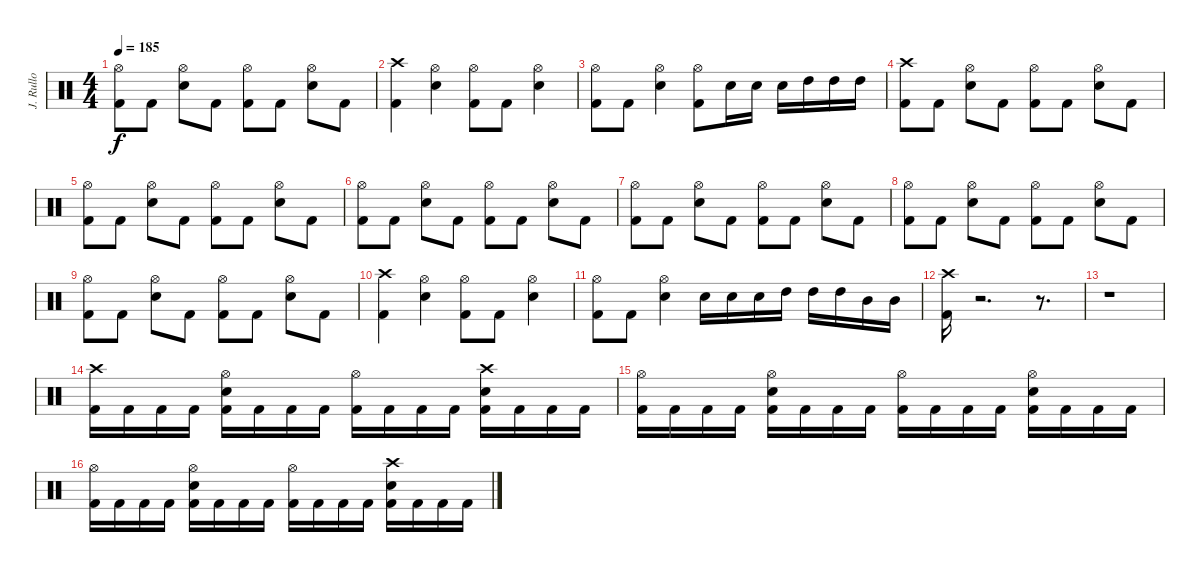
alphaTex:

\track ("J. Rullo" "J. Rullo") {instrument percussion}
\staff {score}
\articulation defaults
\ts (4 4)
\tempo 185
\clef neutral
\ks c
("Hi-Hat (open)" "Kick (hit) 2").8{dy f} "Kick (hit) 2".8 ("Hi-Hat (open)" "Snare (hit) 2").8 "Kick (hit) 2".8 ("Hi-Hat (open)" "Kick (hit) 2").8 "Kick (hit) 2".8 ("Hi-Hat (open)" "Snare (hit) 2").8 "Kick (hit) 2".8 |
("Crash high (hit)" "Kick (hit) 2").4 ("Hi-Hat (open)" "Snare (hit) 2").4 ("Hi-Hat (open)" "Kick (hit) 2").8 "Kick (hit) 2".8 ("Hi-Hat (open)" "Snare (hit) 2").4 |
("Hi-Hat (open)" "Kick (hit) 2").8 "Kick (hit) 2".8 ("Hi-Hat (open)" "Snare (hit) 2").4 ("Hi-Hat (open)" "Kick (hit) 2").8 "Snare (hit) 2".16 "Snare (hit) 2".16 "Snare (hit) 2".16 "High Tom (hit)".16 "High Tom (hit)".16 "High Tom (hit)".16 |
("Crash high (hit)" "Kick (hit) 2").8 "Kick (hit) 2".8 ("Hi-Hat (open)" "Snare (hit) 2").8 "Kick (hit) 2".8 ("Hi-Hat (open)" "Kick (hit) 2").8 "Kick (hit) 2".8 ("Hi-Hat (open)" "Snare (hit) 2").8 "Kick (hit) 2".8 |
("Hi-Hat (open)" "Kick (hit) 2").8 "Kick (hit) 2".8 ("Hi-Hat (open)" "Snare (hit) 2").8 "Kick (hit) 2".8 ("Hi-Hat (open)" "Kick (hit) 2").8 "Kick (hit) 2".8 ("Hi-Hat (open)" "Snare (hit) 2").8 "Kick (hit) 2".8 |
("Hi-Hat (open)" "Kick (hit) 2").8 "Kick (hit) 2".8 ("Hi-Hat (open)" "Snare (hit) 2").8 "Kick (hit) 2".8 ("Hi-Hat (open)" "Kick (hit) 2").8 "Kick (hit) 2".8 ("Hi-Hat (open)" "Snare (hit) 2").8 "Kick (hit) 2".8 |
("Hi-Hat (open)" "Kick (hit) 2").8 "Kick (hit) 2".8 ("Hi-Hat (open)" "Snare (hit) 2").8 "Kick (hit) 2".8 ("Hi-Hat (open)" "Kick (hit) 2").8 "Kick (hit) 2".8 ("Hi-Hat (open)" "Snare (hit) 2").8 "Kick (hit) 2".8 |
("Hi-Hat (open)" "Kick (hit) 2").8 "Kick (hit) 2".8 ("Hi-Hat (open)" "Snare (hit) 2").8 "Kick (hit) 2".8 ("Hi-Hat (open)" "Kick (hit) 2").8 "Kick (hit) 2".8 ("Hi-Hat (open)" "Snare (hit) 2").8 "Kick (hit) 2".8 |
("Hi-Hat (open)" "Kick (hit) 2").8 "Kick (hit) 2".8 ("Hi-Hat (open)" "Snare (hit) 2").8 "Kick (hit) 2".8 ("Hi-Hat (open)" "Kick (hit) 2").8 "Kick (hit) 2".8 ("Hi-Hat (open)" "Snare (hit) 2").8 "Kick (hit) 2".8 |
("Crash high (hit)" "Kick (hit) 2").4 ("Hi-Hat (open)" "Snare (hit) 2").4 ("Hi-Hat (open)" "Kick (hit) 2").8 "Kick (hit) 2".8 ("Hi-Hat (open)" "Snare (hit) 2").4 |
("Hi-Hat (open)" "Kick (hit) 2").8 "Kick (hit) 2".8 ("Hi-Hat (open)" "Snare (hit) 2").4 "Snare (hit) 2".16 "Snare (hit) 2".16 "Snare (hit) 2".16 "High Tom (hit)".16 "High Tom (hit)".16 "High Tom (hit)".16 "Mid Tom (hit)".16 "Mid Tom (hit)".16 |
("Crash high (hit)" "Kick (hit) 2").16 r.2{d} r.8{d} |
r.1 |
("Crash high (hit)" "Kick (hit) 2").16 "Kick (hit) 2".16 "Kick (hit) 2".16 "Kick (hit) 2".16 ("Hi-Hat (open)" "Snare (hit) 2" "Kick (hit) 2").16 "Kick (hit) 2".16 "Kick (hit) 2".16 "Kick (hit) 2".16 ("Hi-Hat (open)" "Kick (hit) 2").16 "Kick (hit) 2".16 "Kick (hit) 2".16 "Kick (hit) 2".16 ("Crash high (hit)" "Snare (hit) 2" "Kick (hit) 2").16 "Kick (hit) 2".16 "Kick (hit) 2".16 "Kick (hit) 2".16 |
("Hi-Hat (open)" "Kick (hit) 2").16 "Kick (hit) 2".16 "Kick (hit) 2".16 "Kick (hit) 2".16 ("Hi-Hat (open)" "Snare (hit) 2" "Kick (hit) 2").16 "Kick (hit) 2".16 "Kick (hit) 2".16 "Kick (hit) 2".16 ("Hi-Hat (open)" "Kick (hit) 2").16 "Kick (hit) 2".16 "Kick (hit) 2".16 "Kick (hit) 2".16 ("Hi-Hat (open)" "Snare (hit) 2" "Kick (hit) 2").16 "Kick (hit) 2".16 "Kick (hit) 2".16 "Kick (hit) 2".16 |
("Hi-Hat (open)" "Kick (hit) 2").16 "Kick (hit) 2".16 "Kick (hit) 2".16 "Kick (hit) 2".16 ("Hi-Hat (open)" "Snare (hit) 2" "Kick (hit) 2").16 "Kick (hit) 2".16 "Kick (hit) 2".16 "Kick (hit) 2".16 ("Hi-Hat (open)" "Kick (hit) 2").16 "Kick (hit) 2".16 "Kick (hit) 2".16 "Kick (hit) 2".16 ("Crash high (hit)" "Snare (hit) 2" "Kick (hit) 2").16 "Kick (hit) 2".16 "Kick (hit) 2".16 "Kick (hit) 2".16
